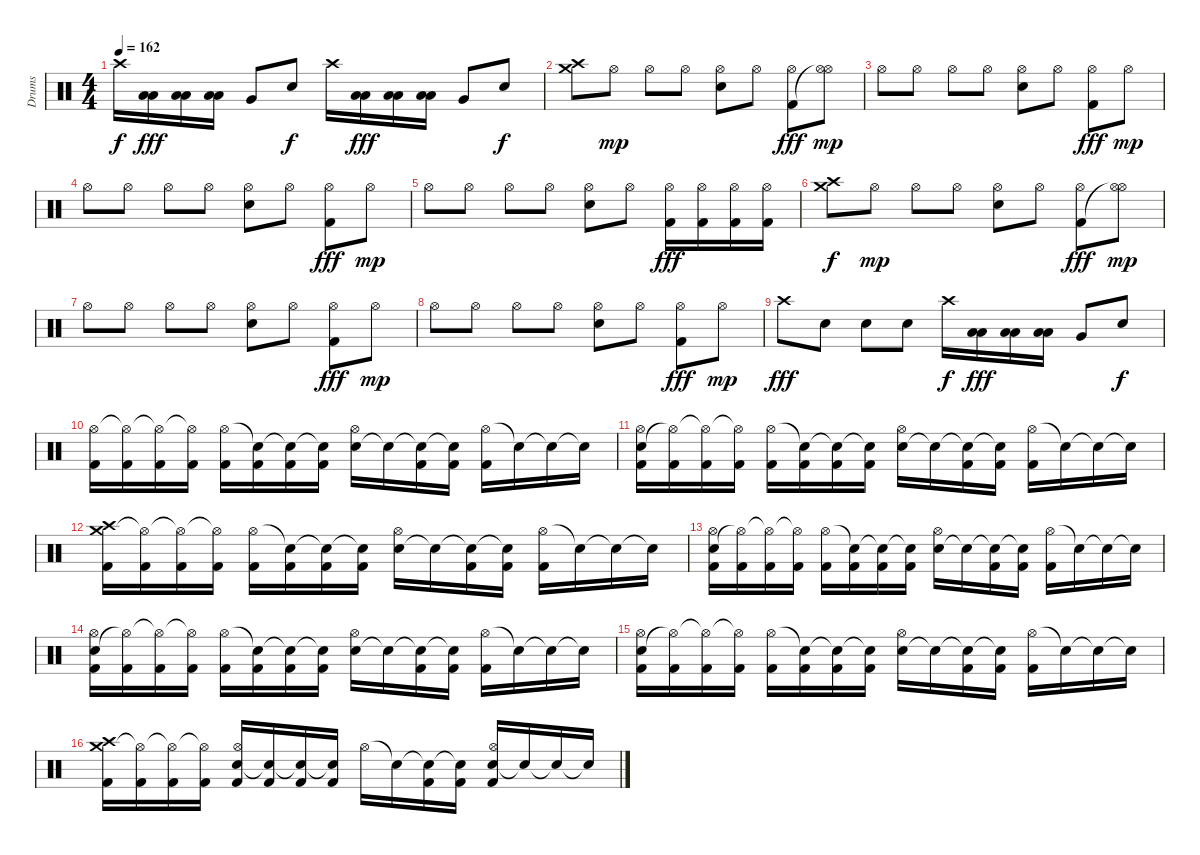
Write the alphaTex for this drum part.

\track ("Drums" "Drums") {instrument percussion}
\staff {score}
\articulation defaults
\ts (4 4)
\tempo 162
\clef neutral
\ks c "Crash high (hit)".16{dy f}
("Low Tom (hit)" "Low Tom (hit)").16{dy fff} ("Low Tom (hit)" "Low Tom (hit)").16 ("Low Tom (hit)" "Low Tom (hit)").16 "Very Low Tom (hit)".8 "Electric Snare (hit)".8{dy f} "Crash high (hit)".16 ("Low Tom (hit)" "Low Tom (hit)").16{dy fff} ("Low Tom (hit)" "Low Tom (hit)").16 ("Low Tom (hit)" "Low Tom (hit)").16 "Very Low Tom (hit)".8 "Electric Snare (hit)".8{dy f} |
("Crash high (hit)" "Crash medium (hit)").8 "Hi-Hat (open)".8{dy mp} "Hi-Hat (open)".8 "Hi-Hat (open)".8 ("Electric Snare (hit)" "Hi-Hat (open)").8 "Hi-Hat (open)".8 ("Hi-Hat (open)" "Kick (hit) 2").8{dy fff} ("Hi-Hat (open)" "Hi-Hat (open)"{t}).8{dy mp} |
"Hi-Hat (open)".8 "Hi-Hat (open)".8 "Hi-Hat (open)".8 "Hi-Hat (open)".8 ("Electric Snare (hit)" "Hi-Hat (open)").8 "Hi-Hat (open)".8 ("Hi-Hat (open)" "Kick (hit) 2").8{dy fff} "Hi-Hat (open)".8{dy mp} |
"Hi-Hat (open)".8 "Hi-Hat (open)".8 "Hi-Hat (open)".8 "Hi-Hat (open)".8 ("Electric Snare (hit)" "Hi-Hat (open)").8 "Hi-Hat (open)".8 ("Hi-Hat (open)" "Kick (hit) 2").8{dy fff} "Hi-Hat (open)".8{dy mp} |
"Hi-Hat (open)".8 "Hi-Hat (open)".8 "Hi-Hat (open)".8 "Hi-Hat (open)".8 ("Electric Snare (hit)" "Hi-Hat (open)").8 "Hi-Hat (open)".8 ("Hi-Hat (open)" "Kick (hit) 2").16{dy fff} ("Hi-Hat (open)" "Kick (hit) 2").16 ("Hi-Hat (open)" "Kick (hit) 2").16 ("Hi-Hat (open)" "Kick (hit) 2").16 |
("Crash high (hit)" "Crash medium (hit)").8{dy f} "Hi-Hat (open)".8{dy mp} "Hi-Hat (open)".8 "Hi-Hat (open)".8 ("Electric Snare (hit)" "Hi-Hat (open)").8 "Hi-Hat (open)".8 ("Hi-Hat (open)" "Kick (hit) 2").8{dy fff} ("Hi-Hat (open)" "Hi-Hat (open)"{t}).8{dy mp} |
"Hi-Hat (open)".8 "Hi-Hat (open)".8 "Hi-Hat (open)".8 "Hi-Hat (open)".8 ("Electric Snare (hit)" "Hi-Hat (open)").8 "Hi-Hat (open)".8 ("Hi-Hat (open)" "Kick (hit) 2").8{dy fff} "Hi-Hat (open)".8{dy mp} |
"Hi-Hat (open)".8 "Hi-Hat (open)".8 "Hi-Hat (open)".8 "Hi-Hat (open)".8 ("Electric Snare (hit)" "Hi-Hat (open)").8 "Hi-Hat (open)".8 ("Hi-Hat (open)" "Kick (hit) 2").8{dy fff} "Hi-Hat (open)".8{dy mp} |
"Crash high (hit)".8{dy fff} "Electric Snare (hit)".8 "Electric Snare (hit)".8 "Electric Snare (hit)".8 "Crash high (hit)".16{dy f} ("Low Tom (hit)" "Low Tom (hit)").16{dy fff} ("Low Tom (hit)" "Low Tom (hit)").16 ("Low Tom (hit)" "Low Tom (hit)").16 "Very Low Tom (hit)".8 "Electric Snare (hit)".8{dy f} |
("Hi-Hat (open)" "Kick (hit) 2").16 ("Hi-Hat (open)"{t} "Kick (hit) 2").16 ("Hi-Hat (open)"{t} "Kick (hit) 2").16 ("Hi-Hat (open)"{t} "Kick (hit) 2").16 ("Hi-Hat (open)" "Kick (hit) 2").16 ("Snare (hit)"{t} "Kick (hit) 2").16 ("Snare (hit)"{t} "Kick (hit) 2").16 ("Snare (hit)"{t} "Kick (hit) 2").16 ("Electric Snare (hit)" "Hi-Hat (open)").16 "Snare (hit)"{t}.16 ("Snare (hit)"{t} "Kick (hit) 2").16 ("Snare (hit)"{t} "Kick (hit) 2").16 ("Hi-Hat (open)" "Kick (hit) 2").16 "Snare (hit)"{t}.16 "Snare (hit)"{t}.16 "Snare (hit)"{t}.16 |
("Electric Snare (hit)" "Hi-Hat (open)" "Kick (hit) 2").16 ("Hi-Hat (open)"{t} "Kick (hit) 2").16 ("Hi-Hat (open)"{t} "Kick (hit) 2").16 ("Hi-Hat (open)"{t} "Kick (hit) 2").16 ("Hi-Hat (open)" "Kick (hit) 2").16 ("Snare (hit)"{t} "Kick (hit) 2").16 ("Snare (hit)"{t} "Kick (hit) 2").16 ("Snare (hit)"{t} "Kick (hit) 2").16 ("Electric Snare (hit)" "Hi-Hat (open)").16 "Snare (hit)"{t}.16 ("Snare (hit)"{t} "Kick (hit) 2").16 ("Snare (hit)"{t} "Kick (hit) 2").16 ("Hi-Hat (open)" "Kick (hit) 2").16 "Snare (hit)"{t}.16 "Snare (hit)"{t}.16 "Snare (hit)"{t}.16 |
("Crash medium (hit)" "Crash high (hit)" "Kick (hit) 2").16 ("Hi-Hat (open)"{t} "Kick (hit) 2").16 ("Hi-Hat (open)"{t} "Kick (hit) 2").16 ("Hi-Hat (open)"{t} "Kick (hit) 2").16 ("Hi-Hat (open)" "Kick (hit) 2").16 ("Snare (hit)"{t} "Kick (hit) 2").16 ("Snare (hit)"{t} "Kick (hit) 2").16 ("Snare (hit)"{t} "Kick (hit) 2").16 ("Electric Snare (hit)" "Hi-Hat (open)").16 "Snare (hit)"{t}.16 ("Snare (hit)"{t} "Kick (hit) 2").16 ("Snare (hit)"{t} "Kick (hit) 2").16 ("Hi-Hat (open)" "Kick (hit) 2").16 "Snare (hit)"{t}.16 "Snare (hit)"{t}.16 "Snare (hit)"{t}.16 |
("Electric Snare (hit)" "Hi-Hat (open)" "Kick (hit) 2").16 ("Hi-Hat (open)"{t} "Kick (hit) 2").16 ("Hi-Hat (open)"{t} "Kick (hit) 2").16 ("Hi-Hat (open)"{t} "Kick (hit) 2").16 ("Hi-Hat (open)" "Kick (hit) 2").16 ("Snare (hit)"{t} "Kick (hit) 2").16 ("Snare (hit)"{t} "Kick (hit) 2").16 ("Snare (hit)"{t} "Kick (hit) 2").16 ("Electric Snare (hit)" "Hi-Hat (open)").16 "Snare (hit)"{t}.16 ("Snare (hit)"{t} "Kick (hit) 2").16 ("Snare (hit)"{t} "Kick (hit) 2").16 ("Hi-Hat (open)" "Kick (hit) 2").16 "Snare (hit)"{t}.16 "Snare (hit)"{t}.16 "Snare (hit)"{t}.16 |
("Electric Snare (hit)" "Hi-Hat (open)" "Kick (hit) 2").16 ("Hi-Hat (open)"{t} "Kick (hit) 2").16 ("Hi-Hat (open)"{t} "Kick (hit) 2").16 ("Hi-Hat (open)"{t} "Kick (hit) 2").16 ("Hi-Hat (open)" "Kick (hit) 2").16 ("Snare (hit)"{t} "Kick (hit) 2").16 ("Snare (hit)"{t} "Kick (hit) 2").16 ("Snare (hit)"{t} "Kick (hit) 2").16 ("Electric Snare (hit)" "Hi-Hat (open)").16 "Snare (hit)"{t}.16 ("Snare (hit)"{t} "Kick (hit) 2").16 ("Snare (hit)"{t} "Kick (hit) 2").16 ("Hi-Hat (open)" "Kick (hit) 2").16 "Snare (hit)"{t}.16 "Snare (hit)"{t}.16 "Snare (hit)"{t}.16 |
("Electric Snare (hit)" "Hi-Hat (open)" "Kick (hit) 2").16 ("Hi-Hat (open)"{t} "Kick (hit) 2").16 ("Hi-Hat (open)"{t} "Kick (hit) 2").16 ("Hi-Hat (open)"{t} "Kick (hit) 2").16 ("Hi-Hat (open)" "Kick (hit) 2").16 ("Snare (hit)"{t} "Kick (hit) 2").16 ("Snare (hit)"{t} "Kick (hit) 2").16 ("Snare (hit)"{t} "Kick (hit) 2").16 ("Electric Snare (hit)" "Hi-Hat (open)").16 "Snare (hit)"{t}.16 ("Snare (hit)"{t} "Kick (hit) 2").16 ("Snare (hit)"{t} "Kick (hit) 2").16 ("Hi-Hat (open)" "Kick (hit) 2").16 "Snare (hit)"{t}.16 "Snare (hit)"{t}.16 "Snare (hit)"{t}.16 |
("Crash medium (hit)" "Crash high (hit)" "Kick (hit) 2").16 ("Hi-Hat (open)"{t} "Kick (hit) 2").16 ("Hi-Hat (open)"{t} "Kick (hit) 2").16 ("Hi-Hat (open)"{t} "Kick (hit) 2").16 ("Electric Snare (hit)" "Hi-Hat (open)" "Kick (hit) 2").16 ("Snare (hit)"{t} "Kick (hit) 2").16 ("Snare (hit)"{t} "Kick (hit) 2").16 ("Snare (hit)"{t} "Kick (hit) 2").16 "Hi-Hat (open)".16 "Snare (hit)"{t}.16 ("Snare (hit)"{t} "Kick (hit) 2").16 ("Snare (hit)"{t} "Kick (hit) 2").16 ("Electric Snare (hit)" "Hi-Hat (open)" "Kick (hit) 2").16 "Snare (hit)"{t}.16 "Snare (hit)"{t}.16 "Snare (hit)"{t}.16
